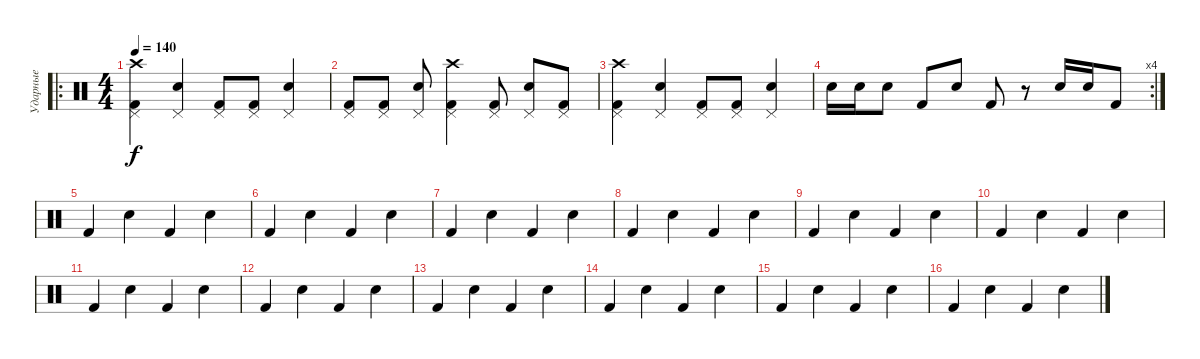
\track ("Ударные" "Ударные") {instrument percussion}
\staff {score}
\articulation defaults
\ro
\ts (4 4)
\tempo 140
\clef neutral
\ks c
("Crash high (hit)" "Pedal Hi-Hat (hit)" "Kick (hit) 2").4{dy f} ("Pedal Hi-Hat (hit)" "Electric Snare (hit)").4 ("Pedal Hi-Hat (hit)" "Kick (hit) 2").8 ("Pedal Hi-Hat (hit)" "Kick (hit) 2").8 ("Pedal Hi-Hat (hit)" "Electric Snare (hit)").4 |
("Pedal Hi-Hat (hit)" "Kick (hit) 2").8 ("Pedal Hi-Hat (hit)" "Kick (hit) 2").8 ("Pedal Hi-Hat (hit)" "Electric Snare (hit)").8 ("Crash high (hit)" "Pedal Hi-Hat (hit)" "Kick (hit) 2").4 ("Pedal Hi-Hat (hit)" "Kick (hit) 2").8 ("Pedal Hi-Hat (hit)" "Electric Snare (hit)").8 ("Pedal Hi-Hat (hit)" "Kick (hit) 2").8 |
("Crash high (hit)" "Pedal Hi-Hat (hit)" "Kick (hit) 2").4 ("Pedal Hi-Hat (hit)" "Electric Snare (hit)").4 ("Pedal Hi-Hat (hit)" "Kick (hit) 2").8 ("Pedal Hi-Hat (hit)" "Kick (hit) 2").8 ("Pedal Hi-Hat (hit)" "Electric Snare (hit)").4 |
\rc 4 "Electric Snare (hit)".16 "Electric Snare (hit)".16 "Electric Snare (hit)".8 "Kick (hit) 2".8 "Electric Snare (hit)".8 "Kick (hit) 2".8
r.8 "Electric Snare (hit)".16 "Electric Snare (hit)".16 "Kick (hit) 2".8 |
"Kick (hit) 2".4 "Electric Snare (hit)".4 "Kick (hit) 2".4 "Electric Snare (hit)".4 |
"Kick (hit) 2".4 "Electric Snare (hit)".4 "Kick (hit) 2".4 "Electric Snare (hit)".4 |
"Kick (hit) 2".4 "Electric Snare (hit)".4 "Kick (hit) 2".4 "Electric Snare (hit)".4 |
"Kick (hit) 2".4 "Electric Snare (hit)".4 "Kick (hit) 2".4 "Electric Snare (hit)".4 |
"Kick (hit) 2".4 "Electric Snare (hit)".4 "Kick (hit) 2".4 "Electric Snare (hit)".4 |
"Kick (hit) 2".4 "Electric Snare (hit)".4 "Kick (hit) 2".4 "Electric Snare (hit)".4 |
"Kick (hit) 2".4 "Electric Snare (hit)".4 "Kick (hit) 2".4 "Electric Snare (hit)".4 |
"Kick (hit) 2".4 "Electric Snare (hit)".4 "Kick (hit) 2".4 "Electric Snare (hit)".4 |
"Kick (hit) 2".4 "Electric Snare (hit)".4 "Kick (hit) 2".4 "Electric Snare (hit)".4 |
"Kick (hit) 2".4 "Electric Snare (hit)".4 "Kick (hit) 2".4 "Electric Snare (hit)".4 |
"Kick (hit) 2".4 "Electric Snare (hit)".4 "Kick (hit) 2".4 "Electric Snare (hit)".4 |
"Kick (hit) 2".4 "Electric Snare (hit)".4 "Kick (hit) 2".4 "Electric Snare (hit)".4
